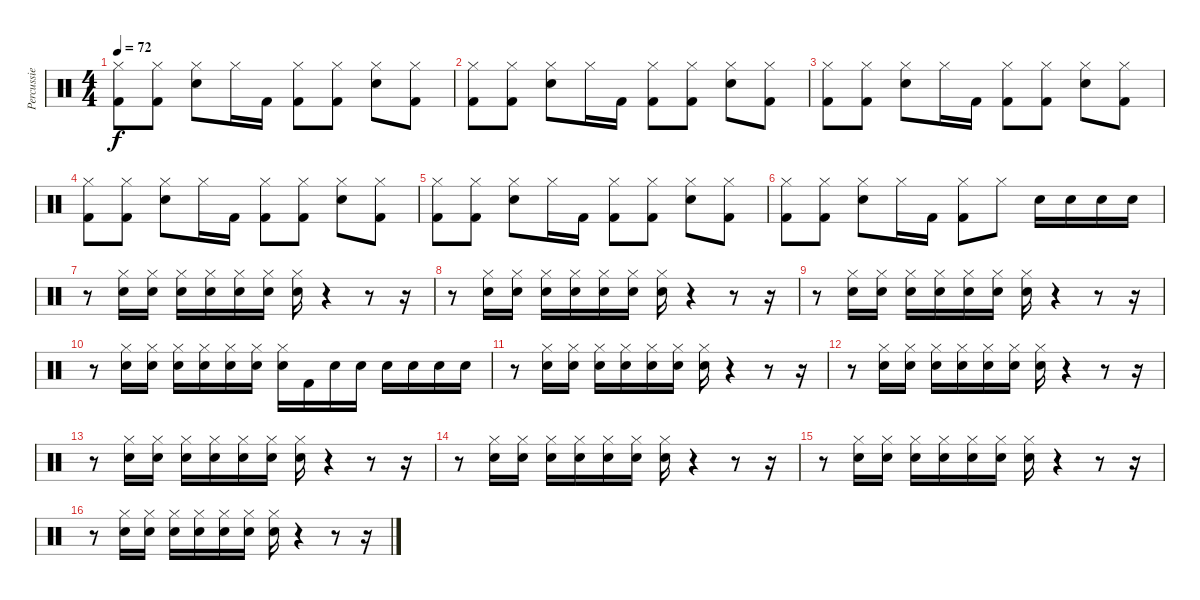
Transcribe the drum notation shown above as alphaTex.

\track ("Percussie" "Percussie") {instrument percussion}
\staff {score}
\articulation defaults
\ts (4 4)
\tempo 72
\clef neutral
\ks c
("Hi-Hat (closed)" "Kick (hit) 2").8{dy f} ("Hi-Hat (closed)" "Kick (hit) 2").8 ("Hi-Hat (closed)" "Electric Snare (hit)").8 "Hi-Hat (closed)".16 "Kick (hit) 2".16 ("Hi-Hat (closed)" "Kick (hit) 2").8 ("Hi-Hat (closed)" "Kick (hit) 2").8 ("Hi-Hat (closed)" "Electric Snare (hit)").8 ("Hi-Hat (closed)" "Kick (hit) 2").8 |
("Hi-Hat (closed)" "Kick (hit) 2").8 ("Hi-Hat (closed)" "Kick (hit) 2").8 ("Hi-Hat (closed)" "Electric Snare (hit)").8 "Hi-Hat (closed)".16 "Kick (hit) 2".16 ("Hi-Hat (closed)" "Kick (hit) 2").8 ("Hi-Hat (closed)" "Kick (hit) 2").8 ("Hi-Hat (closed)" "Electric Snare (hit)").8 ("Hi-Hat (closed)" "Kick (hit) 2").8 |
("Hi-Hat (closed)" "Kick (hit) 2").8 ("Hi-Hat (closed)" "Kick (hit) 2").8 ("Hi-Hat (closed)" "Electric Snare (hit)").8 "Hi-Hat (closed)".16 "Kick (hit) 2".16 ("Hi-Hat (closed)" "Kick (hit) 2").8 ("Hi-Hat (closed)" "Kick (hit) 2").8 ("Hi-Hat (closed)" "Electric Snare (hit)").8 ("Hi-Hat (closed)" "Kick (hit) 2").8 |
("Hi-Hat (closed)" "Kick (hit) 2").8 ("Hi-Hat (closed)" "Kick (hit) 2").8 ("Hi-Hat (closed)" "Electric Snare (hit)").8 "Hi-Hat (closed)".16 "Kick (hit) 2".16 ("Hi-Hat (closed)" "Kick (hit) 2").8 ("Hi-Hat (closed)" "Kick (hit) 2").8 ("Hi-Hat (closed)" "Electric Snare (hit)").8 ("Hi-Hat (closed)" "Kick (hit) 2").8 |
("Hi-Hat (closed)" "Kick (hit) 2").8 ("Hi-Hat (closed)" "Kick (hit) 2").8 ("Hi-Hat (closed)" "Electric Snare (hit)").8 "Hi-Hat (closed)".16 "Kick (hit) 2".16 ("Hi-Hat (closed)" "Kick (hit) 2").8 ("Hi-Hat (closed)" "Kick (hit) 2").8 ("Hi-Hat (closed)" "Electric Snare (hit)").8 ("Hi-Hat (closed)" "Kick (hit) 2").8 |
("Hi-Hat (closed)" "Kick (hit) 2").8 ("Hi-Hat (closed)" "Kick (hit) 2").8 ("Hi-Hat (closed)" "Electric Snare (hit)").8 "Hi-Hat (closed)".16 "Kick (hit) 2".16 ("Hi-Hat (closed)" "Kick (hit) 2").8 "Hi-Hat (closed)".8 "Electric Snare (hit)".16 "Electric Snare (hit)".16 "Electric Snare (hit)".16 "Electric Snare (hit)".16 |
r.8 ("Hi-Hat (closed)" "Electric Snare (hit)").16 ("Hi-Hat (closed)" "Electric Snare (hit)").16 ("Hi-Hat (closed)" "Electric Snare (hit)").16 ("Hi-Hat (closed)" "Electric Snare (hit)").16 ("Hi-Hat (closed)" "Electric Snare (hit)").16 ("Hi-Hat (closed)" "Electric Snare (hit)").16 ("Hi-Hat (closed)" "Electric Snare (hit)").16 r.4 r.8 r.16 |
r.8 ("Hi-Hat (closed)" "Electric Snare (hit)").16 ("Hi-Hat (closed)" "Electric Snare (hit)").16 ("Hi-Hat (closed)" "Electric Snare (hit)").16 ("Hi-Hat (closed)" "Electric Snare (hit)").16 ("Hi-Hat (closed)" "Electric Snare (hit)").16 ("Hi-Hat (closed)" "Electric Snare (hit)").16 ("Hi-Hat (closed)" "Electric Snare (hit)").16 r.4 r.8 r.16 |
r.8 ("Hi-Hat (closed)" "Electric Snare (hit)").16 ("Hi-Hat (closed)" "Electric Snare (hit)").16 ("Hi-Hat (closed)" "Electric Snare (hit)").16 ("Hi-Hat (closed)" "Electric Snare (hit)").16 ("Hi-Hat (closed)" "Electric Snare (hit)").16 ("Hi-Hat (closed)" "Electric Snare (hit)").16 ("Hi-Hat (closed)" "Electric Snare (hit)").16 r.4 r.8 r.16 |
r.8 ("Hi-Hat (closed)" "Electric Snare (hit)").16 ("Hi-Hat (closed)" "Electric Snare (hit)").16 ("Hi-Hat (closed)" "Electric Snare (hit)").16 ("Hi-Hat (closed)" "Electric Snare (hit)").16 ("Hi-Hat (closed)" "Electric Snare (hit)").16 ("Hi-Hat (closed)" "Electric Snare (hit)").16 ("Hi-Hat (closed)" "Electric Snare (hit)").16 "Kick (hit) 2".16 "Electric Snare (hit)".16 "Electric Snare (hit)".16 "Electric Snare (hit)".16 "Electric Snare (hit)".16 "Electric Snare (hit)".16 "Electric Snare (hit)".16 |
r.8 ("Hi-Hat (closed)" "Electric Snare (hit)").16 ("Hi-Hat (closed)" "Electric Snare (hit)").16 ("Hi-Hat (closed)" "Electric Snare (hit)").16 ("Hi-Hat (closed)" "Electric Snare (hit)").16 ("Hi-Hat (closed)" "Electric Snare (hit)").16 ("Hi-Hat (closed)" "Electric Snare (hit)").16 ("Hi-Hat (closed)" "Electric Snare (hit)").16 r.4 r.8 r.16 |
r.8 ("Hi-Hat (closed)" "Electric Snare (hit)").16 ("Hi-Hat (closed)" "Electric Snare (hit)").16 ("Hi-Hat (closed)" "Electric Snare (hit)").16 ("Hi-Hat (closed)" "Electric Snare (hit)").16 ("Hi-Hat (closed)" "Electric Snare (hit)").16 ("Hi-Hat (closed)" "Electric Snare (hit)").16 ("Hi-Hat (closed)" "Electric Snare (hit)").16 r.4 r.8 r.16 |
r.8 ("Hi-Hat (closed)" "Electric Snare (hit)").16 ("Hi-Hat (closed)" "Electric Snare (hit)").16 ("Hi-Hat (closed)" "Electric Snare (hit)").16 ("Hi-Hat (closed)" "Electric Snare (hit)").16 ("Hi-Hat (closed)" "Electric Snare (hit)").16 ("Hi-Hat (closed)" "Electric Snare (hit)").16 ("Hi-Hat (closed)" "Electric Snare (hit)").16 r.4 r.8 r.16 |
r.8 ("Hi-Hat (closed)" "Electric Snare (hit)").16 ("Hi-Hat (closed)" "Electric Snare (hit)").16 ("Hi-Hat (closed)" "Electric Snare (hit)").16 ("Hi-Hat (closed)" "Electric Snare (hit)").16 ("Hi-Hat (closed)" "Electric Snare (hit)").16 ("Hi-Hat (closed)" "Electric Snare (hit)").16 ("Hi-Hat (closed)" "Electric Snare (hit)").16 r.4 r.8 r.16 |
r.8 ("Hi-Hat (closed)" "Electric Snare (hit)").16 ("Hi-Hat (closed)" "Electric Snare (hit)").16 ("Hi-Hat (closed)" "Electric Snare (hit)").16 ("Hi-Hat (closed)" "Electric Snare (hit)").16 ("Hi-Hat (closed)" "Electric Snare (hit)").16 ("Hi-Hat (closed)" "Electric Snare (hit)").16 ("Hi-Hat (closed)" "Electric Snare (hit)").16 r.4 r.8 r.16 |
r.8 ("Hi-Hat (closed)" "Electric Snare (hit)").16 ("Hi-Hat (closed)" "Electric Snare (hit)").16 ("Hi-Hat (closed)" "Electric Snare (hit)").16 ("Hi-Hat (closed)" "Electric Snare (hit)").16 ("Hi-Hat (closed)" "Electric Snare (hit)").16 ("Hi-Hat (closed)" "Electric Snare (hit)").16 ("Hi-Hat (closed)" "Electric Snare (hit)").16 r.4 r.8 r.16
